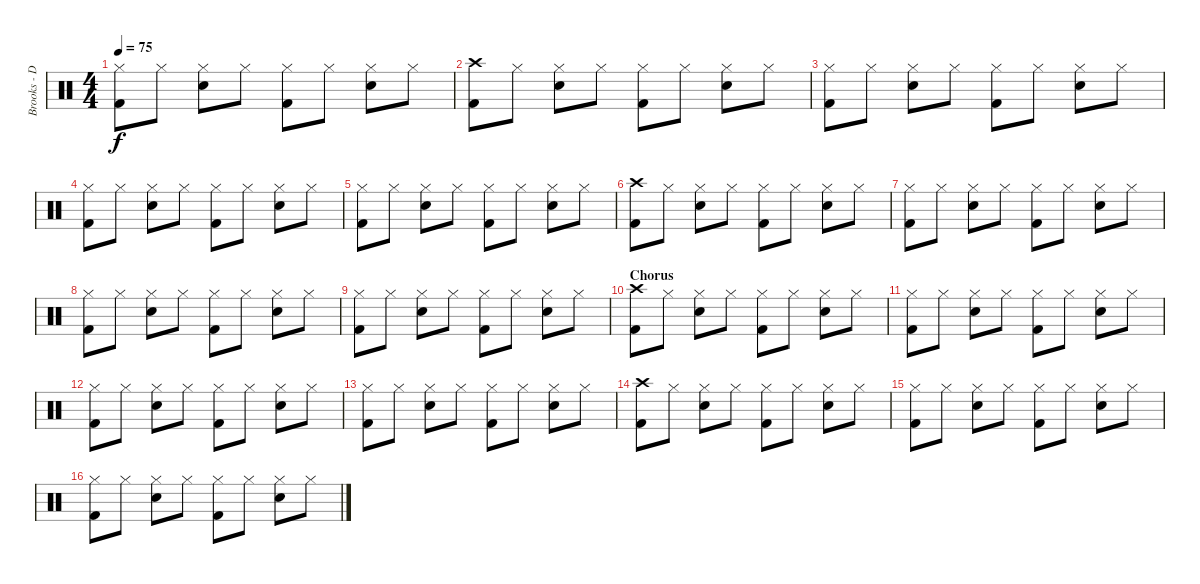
\track ("Brooks - Drums" "Brooks - D") {instrument percussion}
\staff {score}
\articulation defaults
\ts (4 4)
\tempo 75
\clef neutral
\ks c
("Kick (hit) 2" "Hi-Hat (closed)").8{dy f} "Hi-Hat (closed)".8 ("Snare (hit) 2" "Hi-Hat (closed)").8 "Hi-Hat (closed)".8 ("Kick (hit) 2" "Hi-Hat (closed)").8 "Hi-Hat (closed)".8 ("Snare (hit) 2" "Hi-Hat (closed)").8 "Hi-Hat (closed)".8 |
("Kick (hit) 2" "Crash high (hit)").8 "Hi-Hat (closed)".8 ("Snare (hit) 2" "Hi-Hat (closed)").8 "Hi-Hat (closed)".8 ("Kick (hit) 2" "Hi-Hat (closed)").8 "Hi-Hat (closed)".8 ("Snare (hit) 2" "Hi-Hat (closed)").8 "Hi-Hat (closed)".8 |
("Kick (hit) 2" "Hi-Hat (closed)").8 "Hi-Hat (closed)".8 ("Snare (hit) 2" "Hi-Hat (closed)").8 "Hi-Hat (closed)".8 ("Kick (hit) 2" "Hi-Hat (closed)").8 "Hi-Hat (closed)".8 ("Snare (hit) 2" "Hi-Hat (closed)").8 "Hi-Hat (closed)".8 |
("Kick (hit) 2" "Hi-Hat (closed)").8 "Hi-Hat (closed)".8 ("Snare (hit) 2" "Hi-Hat (closed)").8 "Hi-Hat (closed)".8 ("Kick (hit) 2" "Hi-Hat (closed)").8 "Hi-Hat (closed)".8 ("Snare (hit) 2" "Hi-Hat (closed)").8 "Hi-Hat (closed)".8 |
("Kick (hit) 2" "Hi-Hat (closed)").8 "Hi-Hat (closed)".8 ("Snare (hit) 2" "Hi-Hat (closed)").8 "Hi-Hat (closed)".8 ("Kick (hit) 2" "Hi-Hat (closed)").8 "Hi-Hat (closed)".8 ("Snare (hit) 2" "Hi-Hat (closed)").8 "Hi-Hat (closed)".8 |
\section ("" "")
("Kick (hit) 2" "Crash high (hit)").8 "Hi-Hat (closed)".8 ("Snare (hit) 2" "Hi-Hat (closed)").8 "Hi-Hat (closed)".8 ("Kick (hit) 2" "Hi-Hat (closed)").8 "Hi-Hat (closed)".8 ("Snare (hit) 2" "Hi-Hat (closed)").8 "Hi-Hat (closed)".8 |
("Kick (hit) 2" "Hi-Hat (closed)").8 "Hi-Hat (closed)".8 ("Snare (hit) 2" "Hi-Hat (closed)").8 "Hi-Hat (closed)".8 ("Kick (hit) 2" "Hi-Hat (closed)").8 "Hi-Hat (closed)".8 ("Snare (hit) 2" "Hi-Hat (closed)").8 "Hi-Hat (closed)".8 |
("Kick (hit) 2" "Hi-Hat (closed)").8 "Hi-Hat (closed)".8 ("Snare (hit) 2" "Hi-Hat (closed)").8 "Hi-Hat (closed)".8 ("Kick (hit) 2" "Hi-Hat (closed)").8 "Hi-Hat (closed)".8 ("Snare (hit) 2" "Hi-Hat (closed)").8 "Hi-Hat (closed)".8 |
("Kick (hit) 2" "Hi-Hat (closed)").8 "Hi-Hat (closed)".8 ("Snare (hit) 2" "Hi-Hat (closed)").8 "Hi-Hat (closed)".8 ("Kick (hit) 2" "Hi-Hat (closed)").8 "Hi-Hat (closed)".8 ("Snare (hit) 2" "Hi-Hat (closed)").8 "Hi-Hat (closed)".8 |
\section ("" "Chorus ")
("Kick (hit) 2" "Crash high (hit)").8 "Hi-Hat (closed)".8 ("Snare (hit) 2" "Hi-Hat (closed)").8 "Hi-Hat (closed)".8 ("Kick (hit) 2" "Hi-Hat (closed)").8 "Hi-Hat (closed)".8 ("Snare (hit) 2" "Hi-Hat (closed)").8 "Hi-Hat (closed)".8 |
("Kick (hit) 2" "Hi-Hat (closed)").8 "Hi-Hat (closed)".8 ("Snare (hit) 2" "Hi-Hat (closed)").8 "Hi-Hat (closed)".8 ("Kick (hit) 2" "Hi-Hat (closed)").8 "Hi-Hat (closed)".8 ("Snare (hit) 2" "Hi-Hat (closed)").8 "Hi-Hat (closed)".8 |
("Kick (hit) 2" "Hi-Hat (closed)").8 "Hi-Hat (closed)".8 ("Snare (hit) 2" "Hi-Hat (closed)").8 "Hi-Hat (closed)".8 ("Kick (hit) 2" "Hi-Hat (closed)").8 "Hi-Hat (closed)".8 ("Snare (hit) 2" "Hi-Hat (closed)").8 "Hi-Hat (closed)".8 |
("Kick (hit) 2" "Hi-Hat (closed)").8 "Hi-Hat (closed)".8 ("Snare (hit) 2" "Hi-Hat (closed)").8 "Hi-Hat (closed)".8 ("Kick (hit) 2" "Hi-Hat (closed)").8 "Hi-Hat (closed)".8 ("Snare (hit) 2" "Hi-Hat (closed)").8 "Hi-Hat (closed)".8 |
("Kick (hit) 2" "Crash high (hit)").8 "Hi-Hat (closed)".8 ("Snare (hit) 2" "Hi-Hat (closed)").8 "Hi-Hat (closed)".8 ("Kick (hit) 2" "Hi-Hat (closed)").8 "Hi-Hat (closed)".8 ("Snare (hit) 2" "Hi-Hat (closed)").8 "Hi-Hat (closed)".8 |
("Kick (hit) 2" "Hi-Hat (closed)").8 "Hi-Hat (closed)".8 ("Snare (hit) 2" "Hi-Hat (closed)").8 "Hi-Hat (closed)".8 ("Kick (hit) 2" "Hi-Hat (closed)").8 "Hi-Hat (closed)".8 ("Snare (hit) 2" "Hi-Hat (closed)").8 "Hi-Hat (closed)".8 |
("Kick (hit) 2" "Hi-Hat (closed)").8 "Hi-Hat (closed)".8 ("Snare (hit) 2" "Hi-Hat (closed)").8 "Hi-Hat (closed)".8 ("Kick (hit) 2" "Hi-Hat (closed)").8 "Hi-Hat (closed)".8 ("Snare (hit) 2" "Hi-Hat (closed)").8 "Hi-Hat (closed)".8
